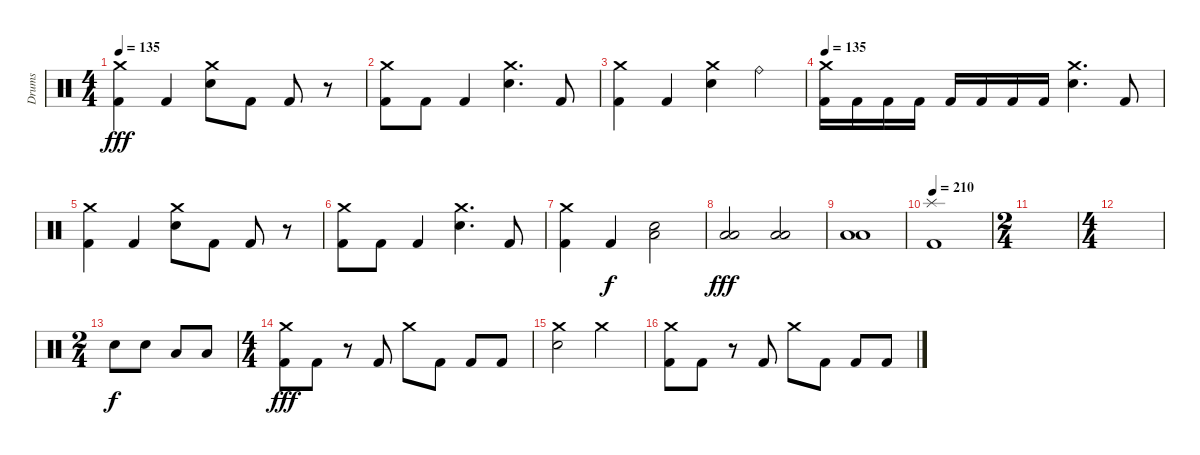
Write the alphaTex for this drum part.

\track ("Drums" "Drums") {instrument percussion}
\staff {score}
\articulation defaults
\ts (4 4)
\tempo 135
\clef neutral
\ks c
("Crash medium (hit)" "Kick (hit) 2").4{dy fff} "Kick (hit) 2".4 ("Crash medium (hit)" "Electric Snare (hit)").8 "Kick (hit) 2".8 "Kick (hit) 2".8 r.8 |
("Crash medium (hit)" "Kick (hit) 2").8 "Kick (hit) 2".8 "Kick (hit) 2".4 ("Crash medium (hit)" "Electric Snare (hit)").4{d} "Kick (hit) 2".8 |
("Crash medium (hit)" "Kick (hit) 2").4 "Kick (hit) 2".4 ("Crash medium (hit)" "Electric Snare (hit)").4 "Ride (bell)".4 |
\tempo 135
("Crash medium (hit)" "Kick (hit) 2").16 "Kick (hit) 2".16 "Kick (hit) 2".16 "Kick (hit) 2".16 "Kick (hit) 2".16 "Kick (hit) 2".16 "Kick (hit) 2".16 "Kick (hit) 2".16 ("Crash medium (hit)" "Electric Snare (hit)").4{d} "Kick (hit) 2".8 |
("Crash medium (hit)" "Kick (hit) 2").4 "Kick (hit) 2".4 ("Crash medium (hit)" "Electric Snare (hit)").8 "Kick (hit) 2".8 "Kick (hit) 2".8 r.8 |
("Crash medium (hit)" "Kick (hit) 2").8 "Kick (hit) 2".8 "Kick (hit) 2".4 ("Crash medium (hit)" "Electric Snare (hit)").4{d} "Kick (hit) 2".8 |
("Crash medium (hit)" "Kick (hit) 2").4 "Kick (hit) 2".4{dy f} ("Low Tom (hit)" "Electric Snare (hit)").2 |
("Low Tom (hit)" "Low Floor Tom (hit)").2{dy fff} ("Low Tom (hit)" "Low Floor Tom (hit)").2 |
("Low Tom (hit)" "Low Floor Tom (hit)").1 |
\tempo 210
("Splash (hit)" "Kick (hit) 2").1 |
\ts (2 4)
|
\ts (4 4)
|
\ts (2 4)
"Electric Snare (hit)".8{dy f} "Electric Snare (hit)".8 "Low Tom (hit)".8 "Low Tom (hit)".8 |
\ts (4 4)
("Crash medium (hit)" "Kick (hit) 2").8{dy fff} "Kick (hit) 2".8 r.8 "Kick (hit) 2".8 "Crash medium (hit)".8 "Kick (hit) 2".8 "Kick (hit) 2".8 "Kick (hit) 2".8 |
("Crash medium (hit)" "Electric Snare (hit)").2 "Crash medium (hit)".2 |
("Crash medium (hit)" "Kick (hit) 2").8 "Kick (hit) 2".8 r.8 "Kick (hit) 2".8 "Crash medium (hit)".8 "Kick (hit) 2".8 "Kick (hit) 2".8 "Kick (hit) 2".8
